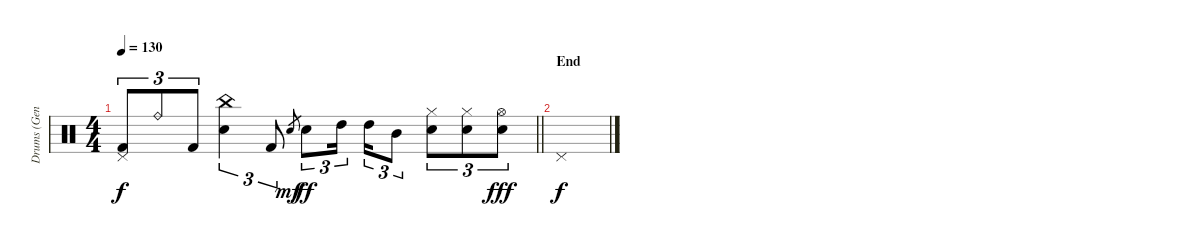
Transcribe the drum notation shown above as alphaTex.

\track ("Drums (Gene Hoglan)" "Drums (Gen") {instrument percussion}
\staff {score}
\articulation defaults
\ts (4 4)
\tempo 130
\clef neutral
\barLineRight lightlight
\ks c
("Pedal Hi-Hat (hit)" "Kick (hit) 2").8{tu (3 2) dy f} "Ride (bell)".8{tu (3 2)} "Kick (hit) 2".8{tu (3 2)} ("China (hit)" "Snare (hit) 2").4{tu (3 2)} "Kick (hit) 2".8{tu (3 2)} "Snare (hit) 2".8{gr dy mf} "Snare (hit) 2".8{tu (3 2) dy ff} "High Tom (hit)".16{tu (3 2) beam splitsecondary} "High Tom (hit)".16{tu (3 2)} "Mid Tom (hit)".8{tu (3 2)} ("Hi-Hat (closed)" "Snare (hit) 2").8{tu (3 2)} ("Hi-Hat (closed)" "Snare (hit) 2").8{tu (3 2)} ("Hi-Hat (open)" "Snare (hit) 2").8{tu (3 2) dy fff} |
\section ("" "End")
"Pedal Hi-Hat (hit)".1{dy f}
